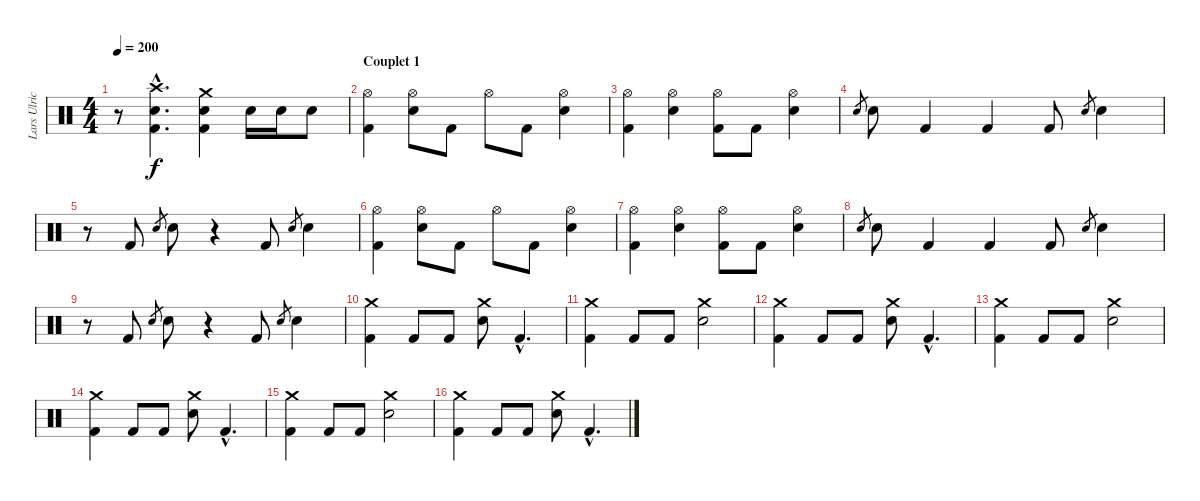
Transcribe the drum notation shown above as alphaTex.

\track ("Lars Ulrich" "Lars Ulric") {instrument percussion}
\staff {score}
\articulation defaults
\ts (4 4)
\tempo 200
\clef neutral
\ks c
r.8{dy f} ("Crash high (hit)"{hac} "Electric Snare (hit)"{hac} "Kick (hit) 2"{hac}).4{d} ("Crash medium (hit)" "Electric Snare (hit)" "Kick (hit) 2").4 "Electric Snare (hit)".16 "Electric Snare (hit)".16 "Electric Snare (hit)".8 |
\section ("" "Couplet 1")
("Hi-Hat (open)" "Kick (hit) 2").4 ("Hi-Hat (open)" "Electric Snare (hit)").8 "Kick (hit) 2".8 "Hi-Hat (open)".8 "Kick (hit) 2".8 ("Hi-Hat (open)" "Electric Snare (hit)").4 |
("Hi-Hat (open)" "Kick (hit) 2").4 ("Hi-Hat (open)" "Electric Snare (hit)").4 ("Hi-Hat (open)" "Kick (hit) 2").8 "Kick (hit) 2".8 ("Hi-Hat (open)" "Electric Snare (hit)").4 |
"Electric Snare (hit)".8{gr} "Electric Snare (hit)".8 "Kick (hit) 2".4 "Kick (hit) 2".4 "Kick (hit) 2".8 "Electric Snare (hit)".8{gr} "Electric Snare (hit)".4 |
r.8 "Kick (hit) 2".8 "Electric Snare (hit)".8{gr} "Electric Snare (hit)".8 r.4 "Kick (hit) 2".8 "Electric Snare (hit)".8{gr} "Electric Snare (hit)".4 |
("Hi-Hat (open)" "Kick (hit) 2").4 ("Hi-Hat (open)" "Electric Snare (hit)").8 "Kick (hit) 2".8 "Hi-Hat (open)".8 "Kick (hit) 2".8 ("Hi-Hat (open)" "Electric Snare (hit)").4 |
("Hi-Hat (open)" "Kick (hit) 2").4 ("Hi-Hat (open)" "Electric Snare (hit)").4 ("Hi-Hat (open)" "Kick (hit) 2").8 "Kick (hit) 2".8 ("Hi-Hat (open)" "Electric Snare (hit)").4 |
"Electric Snare (hit)".8{gr} "Electric Snare (hit)".8 "Kick (hit) 2".4 "Kick (hit) 2".4 "Kick (hit) 2".8 "Electric Snare (hit)".8{gr} "Electric Snare (hit)".4 |
r.8 "Kick (hit) 2".8 "Electric Snare (hit)".8{gr} "Electric Snare (hit)".8 r.4 "Kick (hit) 2".8 "Electric Snare (hit)".8{gr} "Electric Snare (hit)".4 |
("Crash medium (hit)" "Kick (hit) 2").4 "Kick (hit) 2".8 "Kick (hit) 2".8 ("Crash medium (hit)" "Electric Snare (hit)").8 "Kick (hit) 2"{hac}.4{d} |
("Crash medium (hit)" "Kick (hit) 2").4 "Kick (hit) 2".8 "Kick (hit) 2".8 ("Crash medium (hit)" "Electric Snare (hit)").2 |
("Crash medium (hit)" "Kick (hit) 2").4 "Kick (hit) 2".8 "Kick (hit) 2".8 ("Crash medium (hit)" "Electric Snare (hit)").8 "Kick (hit) 2"{hac}.4{d} |
("Crash medium (hit)" "Kick (hit) 2").4 "Kick (hit) 2".8 "Kick (hit) 2".8 ("Crash medium (hit)" "Electric Snare (hit)").2 |
("Crash medium (hit)" "Kick (hit) 2").4 "Kick (hit) 2".8 "Kick (hit) 2".8 ("Crash medium (hit)" "Electric Snare (hit)").8 "Kick (hit) 2"{hac}.4{d} |
("Crash medium (hit)" "Kick (hit) 2").4 "Kick (hit) 2".8 "Kick (hit) 2".8 ("Crash medium (hit)" "Electric Snare (hit)").2 |
("Crash medium (hit)" "Kick (hit) 2").4 "Kick (hit) 2".8 "Kick (hit) 2".8 ("Crash medium (hit)" "Electric Snare (hit)").8 "Kick (hit) 2"{hac}.4{d}
